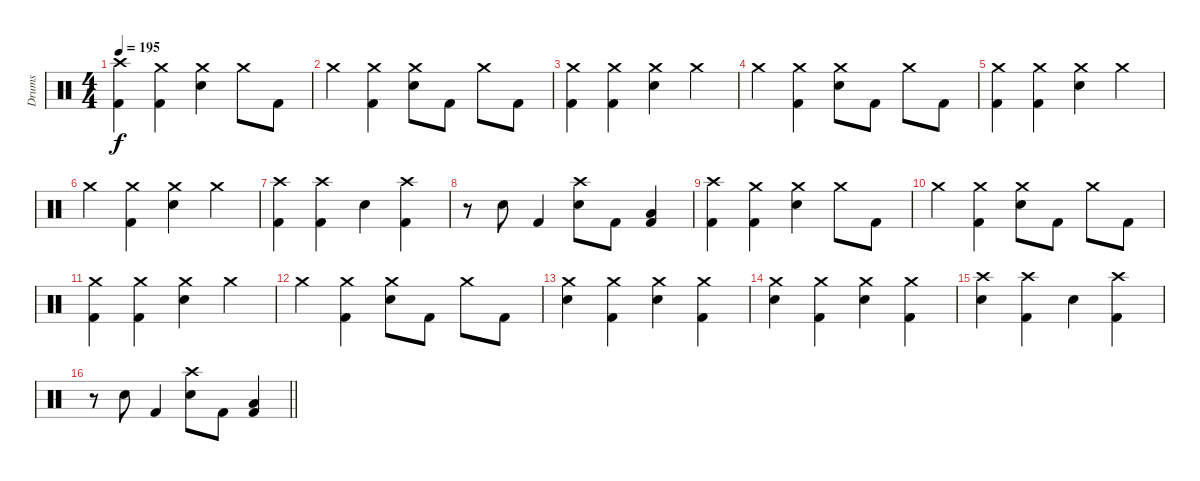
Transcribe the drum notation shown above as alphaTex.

\track ("Drums" "Drums") {instrument percussion}
\staff {score}
\articulation defaults
\ts (4 4)
\tempo 195
\clef neutral
\ks c
("Crash high (hit)" "Kick (hit) 2").4{dy f} ("Crash medium (hit)" "Kick (hit) 2").4 ("Crash medium (hit)" "Snare (hit) 2").4 "Crash medium (hit)".8 "Kick (hit) 2".8 |
"Crash medium (hit)".4 ("Crash medium (hit)" "Kick (hit) 2").4 ("Crash medium (hit)" "Snare (hit) 2").8 "Kick (hit) 2".8 "Crash medium (hit)".8 "Kick (hit) 2".8 |
("Crash medium (hit)" "Kick (hit) 2").4 ("Crash medium (hit)" "Kick (hit) 2").4 ("Crash medium (hit)" "Snare (hit) 2").4 "Crash medium (hit)".4 |
"Crash medium (hit)".4 ("Crash medium (hit)" "Kick (hit) 2").4 ("Crash medium (hit)" "Snare (hit) 2").8 "Kick (hit) 2".8 "Crash medium (hit)".8 "Kick (hit) 2".8 |
("Crash medium (hit)" "Kick (hit) 2").4 ("Crash medium (hit)" "Kick (hit) 2").4 ("Crash medium (hit)" "Snare (hit) 2").4 "Crash medium (hit)".4 |
"Crash medium (hit)".4 ("Crash medium (hit)" "Kick (hit) 2").4 ("Crash medium (hit)" "Snare (hit) 2").4 "Crash medium (hit)".4 |
("Crash high (hit)" "Kick (hit) 2").4 ("Crash high (hit)" "Kick (hit) 2").4 "Snare (hit) 2".4 ("Crash high (hit)" "Kick (hit) 2").4 |
r.8 "Snare (hit) 2".8 "Kick (hit) 2".4 ("Crash high (hit)" "Snare (hit) 2").8 "Kick (hit) 2".8 ("Low Floor Tom (hit)" "Kick (hit) 2").4 |
("Crash high (hit)" "Kick (hit) 2").4 ("Crash medium (hit)" "Kick (hit) 2").4 ("Crash medium (hit)" "Snare (hit) 2").4 "Crash medium (hit)".8 "Kick (hit) 2".8 |
"Crash medium (hit)".4 ("Crash medium (hit)" "Kick (hit) 2").4 ("Crash medium (hit)" "Snare (hit) 2").8 "Kick (hit) 2".8 "Crash medium (hit)".8 "Kick (hit) 2".8 |
("Crash medium (hit)" "Kick (hit) 2").4 ("Crash medium (hit)" "Kick (hit) 2").4 ("Crash medium (hit)" "Snare (hit) 2").4 "Crash medium (hit)".4 |
"Crash medium (hit)".4 ("Crash medium (hit)" "Kick (hit) 2").4 ("Crash medium (hit)" "Snare (hit) 2").8 "Kick (hit) 2".8 "Crash medium (hit)".8 "Kick (hit) 2".8 |
("Crash medium (hit)" "Snare (hit) 2").4 ("Crash medium (hit)" "Kick (hit) 2").4 ("Crash medium (hit)" "Snare (hit) 2").4 ("Crash medium (hit)" "Kick (hit) 2").4 |
("Crash medium (hit)" "Snare (hit) 2").4 ("Crash medium (hit)" "Kick (hit) 2").4 ("Crash medium (hit)" "Snare (hit) 2").4 ("Crash medium (hit)" "Kick (hit) 2").4 |
("Crash high (hit)" "Snare (hit) 2").4 ("Crash high (hit)" "Kick (hit) 2").4 "Snare (hit) 2".4 ("Crash high (hit)" "Kick (hit) 2").4 |
\barLineRight lightlight
r.8 "Snare (hit) 2".8 "Kick (hit) 2".4 ("Crash high (hit)" "Snare (hit) 2").8 "Kick (hit) 2".8 ("Low Floor Tom (hit)" "Kick (hit) 2").4
